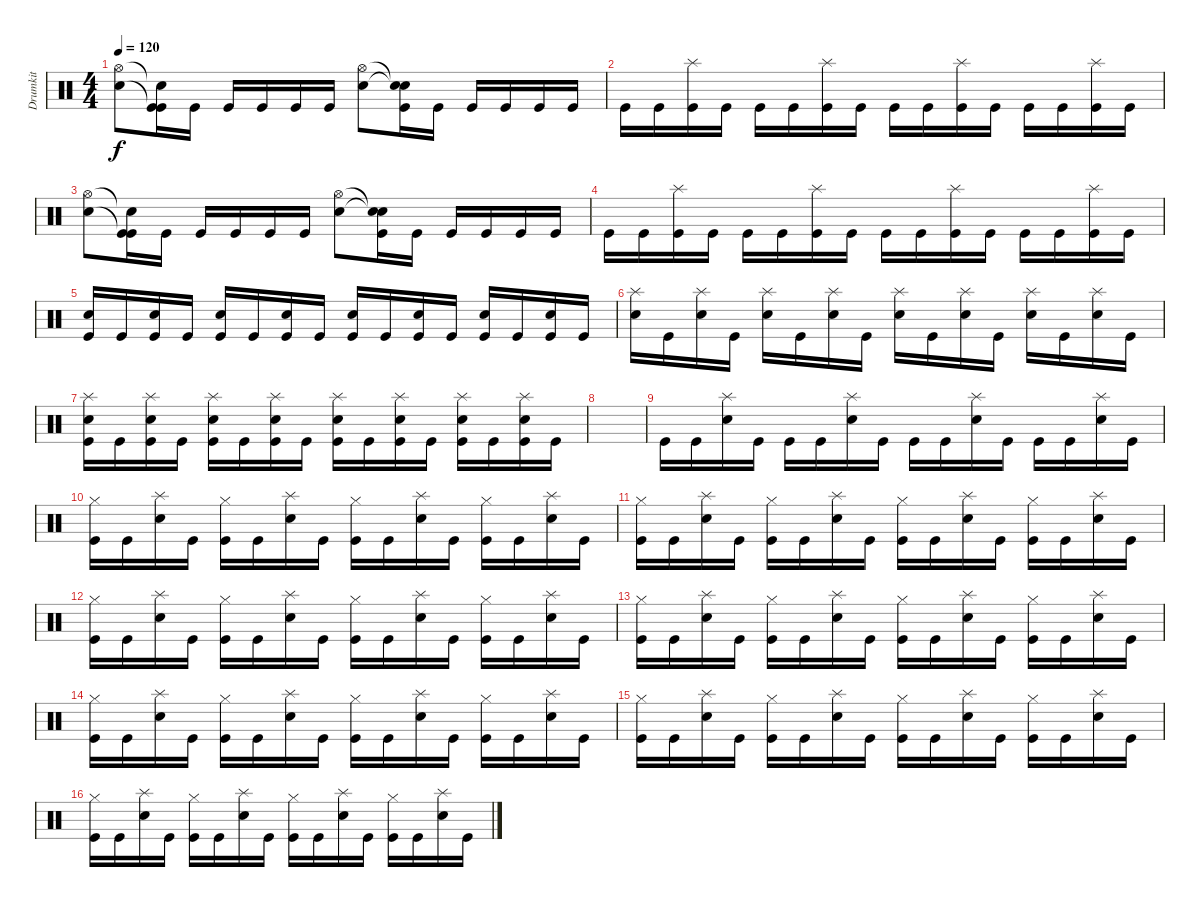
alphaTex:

\track ("Drumkit" "Drumkit") {instrument percussion}
\staff {score}
\articulation defaults
\ts (4 4)
\tempo 120
\clef neutral
\ks c
("Hi-Hat (open)" "Electric Snare (hit)").8{dy f} ("Snare (hit)"{t} "Kick (hit)"{t} "Kick (hit)").16 "Kick (hit)".16 "Kick (hit)".16 "Kick (hit)".16 "Kick (hit)".16 "Kick (hit)".16 ("Hi-Hat (open)" "Electric Snare (hit)").8 ("Snare (hit)"{t} "Snare (hit)"{t} "Kick (hit)").16 "Kick (hit)".16 "Kick (hit)".16 "Kick (hit)".16 "Kick (hit)".16 "Kick (hit)".16 |
"Kick (hit)".16 "Kick (hit)".16 ("Splash (hit)" "Kick (hit)").16 "Kick (hit)".16 "Kick (hit)".16 "Kick (hit)".16 ("Splash (hit)" "Kick (hit)").16 "Kick (hit)".16 "Kick (hit)".16 "Kick (hit)".16 ("Splash (hit)" "Kick (hit)").16 "Kick (hit)".16 "Kick (hit)".16 "Kick (hit)".16 ("Splash (hit)" "Kick (hit)").16 "Kick (hit)".16 |
("Hi-Hat (open)" "Electric Snare (hit)").8 ("Snare (hit)"{t} "Kick (hit)"{t} "Kick (hit)").16 "Kick (hit)".16 "Kick (hit)".16 "Kick (hit)".16 "Kick (hit)".16 "Kick (hit)".16 ("Hi-Hat (open)" "Electric Snare (hit)").8 ("Snare (hit)"{t} "Snare (hit)"{t} "Kick (hit)").16 "Kick (hit)".16 "Kick (hit)".16 "Kick (hit)".16 "Kick (hit)".16 "Kick (hit)".16 |
"Kick (hit)".16 "Kick (hit)".16 ("Splash (hit)" "Kick (hit)").16 "Kick (hit)".16 "Kick (hit)".16 "Kick (hit)".16 ("Splash (hit)" "Kick (hit)").16 "Kick (hit)".16 "Kick (hit)".16 "Kick (hit)".16 ("Splash (hit)" "Kick (hit)").16 "Kick (hit)".16 "Kick (hit)".16 "Kick (hit)".16 ("Splash (hit)" "Kick (hit)").16 "Kick (hit)".16 |
("Electric Snare (hit)" "Kick (hit)").16 "Kick (hit)".16 ("Electric Snare (hit)" "Kick (hit)").16 "Kick (hit)".16 ("Electric Snare (hit)" "Kick (hit)").16 "Kick (hit)".16 ("Electric Snare (hit)" "Kick (hit)").16 "Kick (hit)".16 ("Electric Snare (hit)" "Kick (hit)").16 "Kick (hit)".16 ("Electric Snare (hit)" "Kick (hit)").16 "Kick (hit)".16 ("Electric Snare (hit)" "Kick (hit)").16 "Kick (hit)".16 ("Electric Snare (hit)" "Kick (hit)").16 "Kick (hit)".16 |
("Splash (hit)" "Electric Snare (hit)").16 "Kick (hit)".16 ("Splash (hit)" "Electric Snare (hit)").16 "Kick (hit)".16 ("Splash (hit)" "Electric Snare (hit)").16 "Kick (hit)".16 ("Splash (hit)" "Electric Snare (hit)").16 "Kick (hit)".16 ("Splash (hit)" "Electric Snare (hit)").16 "Kick (hit)".16 ("Splash (hit)" "Electric Snare (hit)").16 "Kick (hit)".16 ("Splash (hit)" "Electric Snare (hit)").16 "Kick (hit)".16 ("Splash (hit)" "Electric Snare (hit)").16 "Kick (hit)".16 |
("Splash (hit)" "Electric Snare (hit)" "Kick (hit)").16 "Kick (hit)".16 ("Splash (hit)" "Electric Snare (hit)" "Kick (hit)").16 "Kick (hit)".16 ("Splash (hit)" "Electric Snare (hit)" "Kick (hit)").16 "Kick (hit)".16 ("Splash (hit)" "Electric Snare (hit)" "Kick (hit)").16 "Kick (hit)".16 ("Splash (hit)" "Electric Snare (hit)" "Kick (hit)").16 "Kick (hit)".16 ("Splash (hit)" "Electric Snare (hit)" "Kick (hit)").16 "Kick (hit)".16 ("Splash (hit)" "Electric Snare (hit)" "Kick (hit)").16 "Kick (hit)".16 ("Splash (hit)" "Electric Snare (hit)" "Kick (hit)").16 "Kick (hit)".16 |
|
"Kick (hit)".16 "Kick (hit)".16 ("Splash (hit)" "Electric Snare (hit)").16 "Kick (hit)".16 "Kick (hit)".16 "Kick (hit)".16 ("Splash (hit)" "Electric Snare (hit)").16 "Kick (hit)".16 "Kick (hit)".16 "Kick (hit)".16 ("Splash (hit)" "Electric Snare (hit)").16 "Kick (hit)".16 "Kick (hit)".16 "Kick (hit)".16 ("Splash (hit)" "Electric Snare (hit)").16 "Kick (hit)".16 |
("Hi-Hat (closed)" "Kick (hit)").16 "Kick (hit)".16 ("Splash (hit)" "Electric Snare (hit)").16 "Kick (hit)".16 ("Hi-Hat (closed)" "Kick (hit)").16 "Kick (hit)".16 ("Splash (hit)" "Electric Snare (hit)").16 "Kick (hit)".16 ("Hi-Hat (closed)" "Kick (hit)").16 "Kick (hit)".16 ("Splash (hit)" "Electric Snare (hit)").16 "Kick (hit)".16 ("Hi-Hat (closed)" "Kick (hit)").16 "Kick (hit)".16 ("Splash (hit)" "Electric Snare (hit)").16 "Kick (hit)".16 |
("Hi-Hat (closed)" "Kick (hit)").16 "Kick (hit)".16 ("Splash (hit)" "Electric Snare (hit)").16 "Kick (hit)".16 ("Hi-Hat (closed)" "Kick (hit)").16 "Kick (hit)".16 ("Splash (hit)" "Electric Snare (hit)").16 "Kick (hit)".16 ("Hi-Hat (closed)" "Kick (hit)").16 "Kick (hit)".16 ("Splash (hit)" "Electric Snare (hit)").16 "Kick (hit)".16 ("Hi-Hat (closed)" "Kick (hit)").16 "Kick (hit)".16 ("Splash (hit)" "Electric Snare (hit)").16 "Kick (hit)".16 |
("Hi-Hat (closed)" "Kick (hit)").16 "Kick (hit)".16 ("Splash (hit)" "Electric Snare (hit)").16 "Kick (hit)".16 ("Hi-Hat (closed)" "Kick (hit)").16 "Kick (hit)".16 ("Splash (hit)" "Electric Snare (hit)").16 "Kick (hit)".16 ("Hi-Hat (closed)" "Kick (hit)").16 "Kick (hit)".16 ("Splash (hit)" "Electric Snare (hit)").16 "Kick (hit)".16 ("Hi-Hat (closed)" "Kick (hit)").16 "Kick (hit)".16 ("Splash (hit)" "Electric Snare (hit)").16 "Kick (hit)".16 |
("Hi-Hat (closed)" "Kick (hit)").16 "Kick (hit)".16 ("Splash (hit)" "Electric Snare (hit)").16 "Kick (hit)".16 ("Hi-Hat (closed)" "Kick (hit)").16 "Kick (hit)".16 ("Splash (hit)" "Electric Snare (hit)").16 "Kick (hit)".16 ("Hi-Hat (closed)" "Kick (hit)").16 "Kick (hit)".16 ("Splash (hit)" "Electric Snare (hit)").16 "Kick (hit)".16 ("Hi-Hat (closed)" "Kick (hit)").16 "Kick (hit)".16 ("Splash (hit)" "Electric Snare (hit)").16 "Kick (hit)".16 |
("Hi-Hat (closed)" "Kick (hit)").16 "Kick (hit)".16 ("Splash (hit)" "Electric Snare (hit)").16 "Kick (hit)".16 ("Hi-Hat (closed)" "Kick (hit)").16 "Kick (hit)".16 ("Splash (hit)" "Electric Snare (hit)").16 "Kick (hit)".16 ("Hi-Hat (closed)" "Kick (hit)").16 "Kick (hit)".16 ("Splash (hit)" "Electric Snare (hit)").16 "Kick (hit)".16 ("Hi-Hat (closed)" "Kick (hit)").16 "Kick (hit)".16 ("Splash (hit)" "Electric Snare (hit)").16 "Kick (hit)".16 |
("Hi-Hat (closed)" "Kick (hit)").16 "Kick (hit)".16 ("Splash (hit)" "Electric Snare (hit)").16 "Kick (hit)".16 ("Hi-Hat (closed)" "Kick (hit)").16 "Kick (hit)".16 ("Splash (hit)" "Electric Snare (hit)").16 "Kick (hit)".16 ("Hi-Hat (closed)" "Kick (hit)").16 "Kick (hit)".16 ("Splash (hit)" "Electric Snare (hit)").16 "Kick (hit)".16 ("Hi-Hat (closed)" "Kick (hit)").16 "Kick (hit)".16 ("Splash (hit)" "Electric Snare (hit)").16 "Kick (hit)".16 |
("Hi-Hat (closed)" "Kick (hit)").16 "Kick (hit)".16 ("Splash (hit)" "Electric Snare (hit)").16 "Kick (hit)".16 ("Hi-Hat (closed)" "Kick (hit)").16 "Kick (hit)".16 ("Splash (hit)" "Electric Snare (hit)").16 "Kick (hit)".16 ("Hi-Hat (closed)" "Kick (hit)").16 "Kick (hit)".16 ("Splash (hit)" "Electric Snare (hit)").16 "Kick (hit)".16 ("Hi-Hat (closed)" "Kick (hit)").16 "Kick (hit)".16 ("Splash (hit)" "Electric Snare (hit)").16 "Kick (hit)".16
